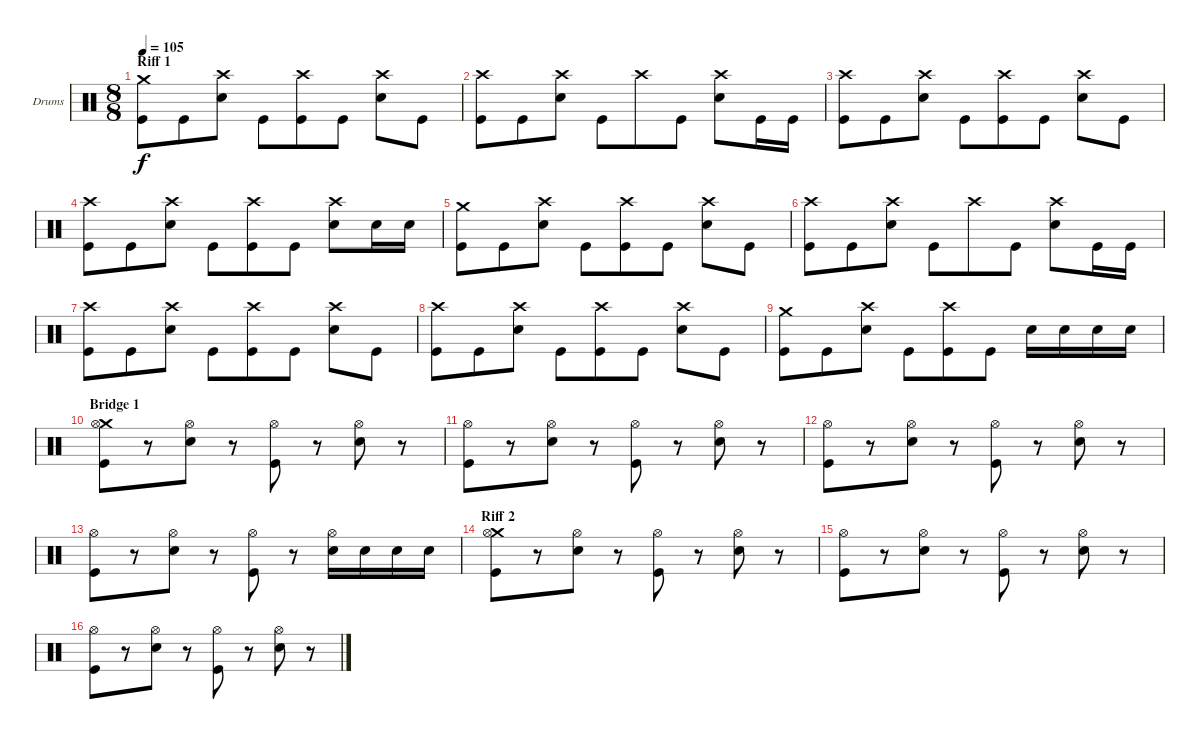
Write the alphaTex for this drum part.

\bracketExtendMode groupsimilarinstruments
\firstSystemTrackNameOrientation horizontal
\otherSystemsTrackNameOrientation horizontal
\track ("Drumkit" "Drums") {instrument percussion}
\staff {score}
\articulation defaults
\ts (8 8)
\section ("" "Riff 1")
\tempo 105
\clef neutral
\ks c
("Crash medium (hit)" "Kick (hit)").8{dy f} "Kick (hit)".8 ("Crash high (hit)" "Snare (hit) 2").8 "Kick (hit)".8 ("Crash high (hit)" "Kick (hit)").8 "Kick (hit)".8 ("Crash high (hit)" "Snare (hit) 2").8 "Kick (hit)".8 |
("Crash high (hit)" "Kick (hit)").8 "Kick (hit)".8 ("Crash high (hit)" "Snare (hit) 2").8 "Kick (hit)".8 "Crash high (hit)".8 "Kick (hit)".8 ("Crash high (hit)" "Snare (hit) 2").8 "Kick (hit)".16 "Kick (hit)".16 |
("Crash high (hit)" "Kick (hit)").8 "Kick (hit)".8 ("Crash high (hit)" "Snare (hit) 2").8 "Kick (hit)".8 ("Crash high (hit)" "Kick (hit)").8 "Kick (hit)".8 ("Crash high (hit)" "Snare (hit) 2").8 "Kick (hit)".8 |
("Crash high (hit)" "Kick (hit)").8 "Kick (hit)".8 ("Crash high (hit)" "Snare (hit) 2").8 "Kick (hit)".8 ("Crash high (hit)" "Kick (hit)").8 "Kick (hit)".8 ("Crash high (hit)" "Snare (hit) 2").8 "Snare (hit) 2".16 "Snare (hit) 2".16 |
("Crash medium (hit)" "Kick (hit)").8 "Kick (hit)".8 ("Crash high (hit)" "Snare (hit) 2").8 "Kick (hit)".8 ("Crash high (hit)" "Kick (hit)").8 "Kick (hit)".8 ("Crash high (hit)" "Snare (hit) 2").8 "Kick (hit)".8 |
("Crash high (hit)" "Kick (hit)").8 "Kick (hit)".8 ("Crash high (hit)" "Snare (hit) 2").8 "Kick (hit)".8 "Crash high (hit)".8 "Kick (hit)".8 ("Crash high (hit)" "Snare (hit) 2").8 "Kick (hit)".16 "Kick (hit)".16 |
("Crash high (hit)" "Kick (hit)").8 "Kick (hit)".8 ("Crash high (hit)" "Snare (hit) 2").8 "Kick (hit)".8 ("Crash high (hit)" "Kick (hit)").8 "Kick (hit)".8 ("Crash high (hit)" "Snare (hit) 2").8 "Kick (hit)".8 |
("Crash high (hit)" "Kick (hit)").8 "Kick (hit)".8 ("Crash high (hit)" "Snare (hit) 2").8 "Kick (hit)".8 ("Crash high (hit)" "Kick (hit)").8 "Kick (hit)".8 ("Crash high (hit)" "Snare (hit) 2").8 "Kick (hit)".8 |
\section ("" "")
("Crash medium (hit)" "Kick (hit)").8 "Kick (hit)".8 ("Crash high (hit)" "Snare (hit) 2").8 "Kick (hit)".8 ("Crash high (hit)" "Kick (hit)").8 "Kick (hit)".8 "Snare (hit) 2".16 "Snare (hit) 2".16 "Snare (hit) 2".16 "Snare (hit) 2".16 |
\section ("" "Bridge 1")
("Crash medium (hit)" "Hi-Hat (open)" "Kick (hit)").8 r.8 ("Hi-Hat (open)" "Snare (hit) 2").8 r.8 ("Hi-Hat (open)" "Kick (hit)").8 r.8 ("Hi-Hat (open)" "Snare (hit) 2").8 r.8 |
("Hi-Hat (open)" "Kick (hit)").8 r.8 ("Hi-Hat (open)" "Snare (hit) 2").8 r.8 ("Hi-Hat (open)" "Kick (hit)").8 r.8 ("Hi-Hat (open)" "Snare (hit) 2").8 r.8 |
("Hi-Hat (open)" "Kick (hit)").8 r.8 ("Hi-Hat (open)" "Snare (hit) 2").8 r.8 ("Hi-Hat (open)" "Kick (hit)").8 r.8 ("Hi-Hat (open)" "Snare (hit) 2").8 r.8 |
("Hi-Hat (open)" "Kick (hit)").8 r.8 ("Hi-Hat (open)" "Snare (hit) 2").8 r.8 ("Hi-Hat (open)" "Kick (hit)").8 r.8 ("Hi-Hat (open)" "Snare (hit) 2").16 "Snare (hit) 2".16 "Snare (hit) 2".16 "Snare (hit) 2".16 |
\section ("" "Riff 2")
("Crash medium (hit)" "Hi-Hat (open)" "Kick (hit)").8 r.8 ("Hi-Hat (open)" "Snare (hit) 2").8 r.8 ("Hi-Hat (open)" "Kick (hit)").8 r.8 ("Hi-Hat (open)" "Snare (hit) 2").8 r.8 |
("Hi-Hat (open)" "Kick (hit)").8 r.8 ("Hi-Hat (open)" "Snare (hit) 2").8 r.8 ("Hi-Hat (open)" "Kick (hit)").8 r.8 ("Hi-Hat (open)" "Snare (hit) 2").8 r.8 |
("Hi-Hat (open)" "Kick (hit)").8 r.8 ("Hi-Hat (open)" "Snare (hit) 2").8 r.8 ("Hi-Hat (open)" "Kick (hit)").8 r.8 ("Hi-Hat (open)" "Snare (hit) 2").8 r.8
